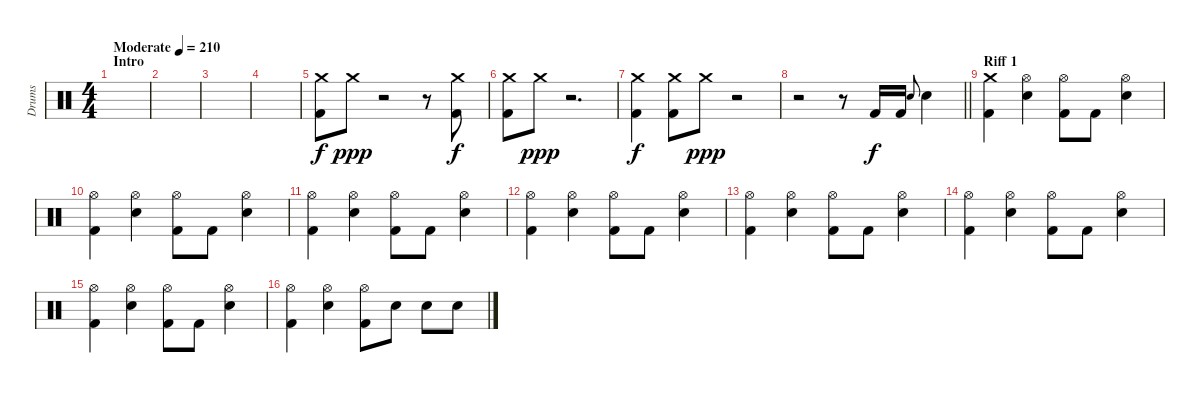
\track ("Drums" "Drums") {instrument percussion}
\staff {score}
\articulation defaults
\ts (4 4)
\section ("" "Intro")
\tempo (210 "Moderate")
\clef neutral
\ks c
|
|
|
|
("Crash medium (hit)" "Kick (hit) 2").8 "Crash medium (hit)".8{dy ppp} r.2 r.8 ("Kick (hit) 2" "Crash medium (hit)").8{dy f} |
("Crash medium (hit)" "Kick (hit) 2").8 "Crash medium (hit)".8{dy ppp} r.2{d} |
("Kick (hit) 2" "Crash medium (hit)").4{dy f} ("Kick (hit) 2" "Crash medium (hit)").8 "Crash medium (hit)".8{dy ppp} r.2 |
\barLineRight lightlight
r.2 r.8 "Kick (hit) 2".16{dy f} "Kick (hit) 2".16 "Electric Snare (hit)".8{gr onbeat} "Electric Snare (hit)".4 |
\section ("" "Riff 1")
("Crash medium (hit)" "Kick (hit) 2").4 ("Hi-Hat (open)" "Electric Snare (hit)").4 ("Kick (hit) 2" "Hi-Hat (open)").8 "Kick (hit) 2".8 ("Hi-Hat (open)" "Electric Snare (hit)").4 |
("Hi-Hat (open)" "Kick (hit) 2").4 ("Hi-Hat (open)" "Electric Snare (hit)").4 ("Kick (hit) 2" "Hi-Hat (open)").8 "Kick (hit) 2".8 ("Hi-Hat (open)" "Electric Snare (hit)").4 |
("Hi-Hat (open)" "Kick (hit) 2").4 ("Hi-Hat (open)" "Electric Snare (hit)").4 ("Kick (hit) 2" "Hi-Hat (open)").8 "Kick (hit) 2".8 ("Hi-Hat (open)" "Electric Snare (hit)").4 |
("Hi-Hat (open)" "Kick (hit) 2").4 ("Hi-Hat (open)" "Electric Snare (hit)").4 ("Kick (hit) 2" "Hi-Hat (open)").8 "Kick (hit) 2".8 ("Hi-Hat (open)" "Electric Snare (hit)").4 |
("Hi-Hat (open)" "Kick (hit) 2").4 ("Hi-Hat (open)" "Electric Snare (hit)").4 ("Kick (hit) 2" "Hi-Hat (open)").8 "Kick (hit) 2".8 ("Hi-Hat (open)" "Electric Snare (hit)").4 |
("Hi-Hat (open)" "Kick (hit) 2").4 ("Hi-Hat (open)" "Electric Snare (hit)").4 ("Kick (hit) 2" "Hi-Hat (open)").8 "Kick (hit) 2".8 ("Hi-Hat (open)" "Electric Snare (hit)").4 |
("Hi-Hat (open)" "Kick (hit) 2").4 ("Hi-Hat (open)" "Electric Snare (hit)").4 ("Kick (hit) 2" "Hi-Hat (open)").8 "Kick (hit) 2".8 ("Hi-Hat (open)" "Electric Snare (hit)").4 |
("Hi-Hat (open)" "Kick (hit) 2").4 ("Hi-Hat (open)" "Electric Snare (hit)").4 ("Kick (hit) 2" "Hi-Hat (open)").8 "Electric Snare (hit)".8 "Electric Snare (hit)".8 "Electric Snare (hit)".8
